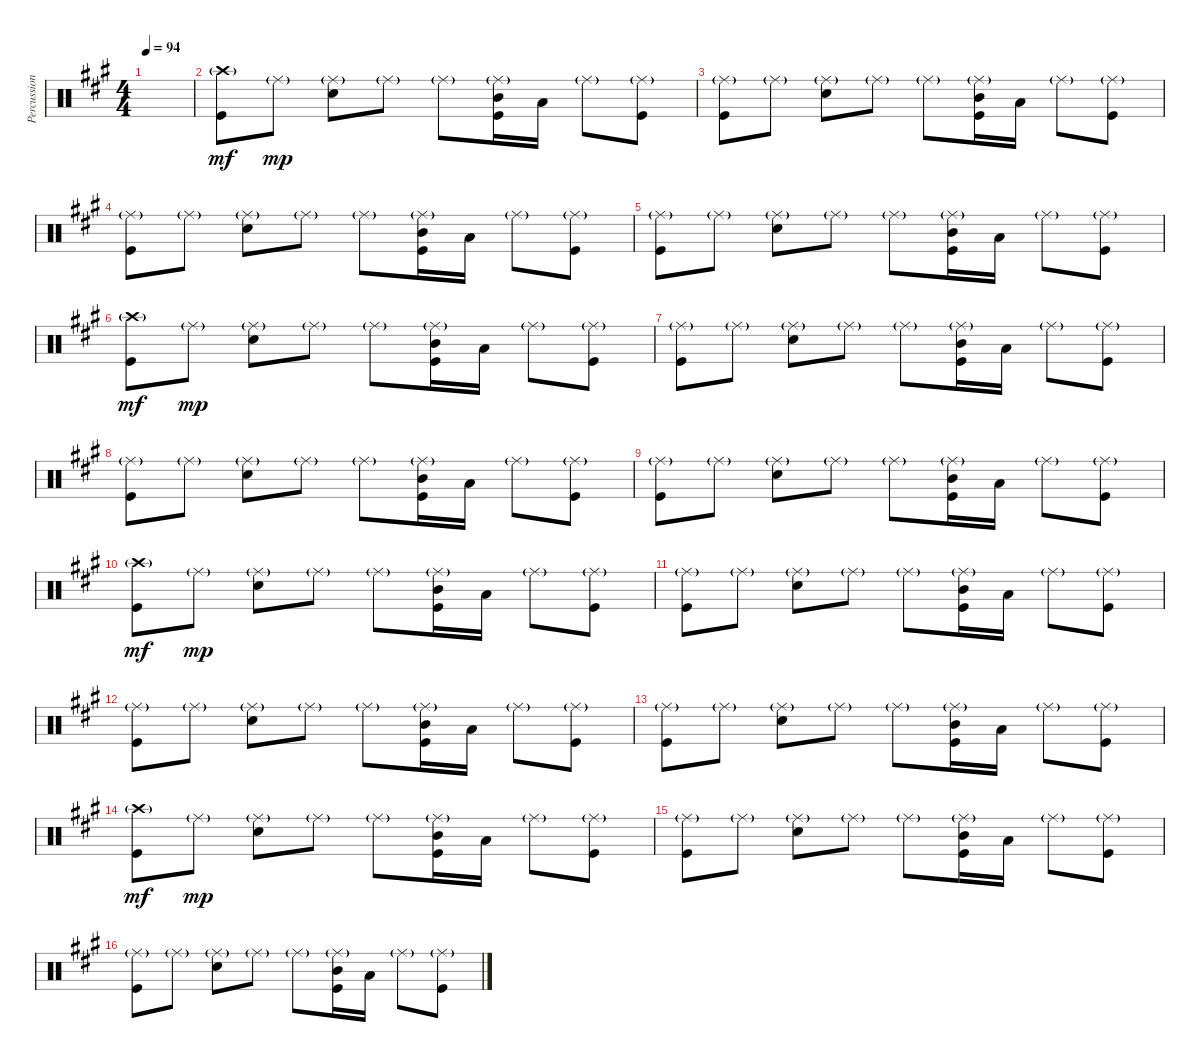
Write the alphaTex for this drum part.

\track ("Percussion" "Percussion") {instrument percussion}
\staff {score}
\articulation defaults
\ts (4 4)
\tempo 94
\clef neutral
\ks a
|
("Crash high (hit)"{g} "Kick (hit)").8{dy mf} "Ride (middle)"{g}.8{dy mp} ("Ride (middle)"{g} "Electric Snare (hit)").8 "Ride (middle)"{g}.8 "Ride (middle)"{g}.8 ("Ride (middle)"{g} "Mid Tom (hit)" "Kick (hit)").16 "Low Tom (hit)".16 "Ride (middle)"{g}.8 ("Ride (middle)"{g} "Kick (hit)").8 |
("Ride (middle)"{g} "Kick (hit)").8 "Ride (middle)"{g}.8 ("Ride (middle)"{g} "Electric Snare (hit)").8 "Ride (middle)"{g}.8 "Ride (middle)"{g}.8 ("Ride (middle)"{g} "Mid Tom (hit)" "Kick (hit)").16 "Low Tom (hit)".16 "Ride (middle)"{g}.8 ("Ride (middle)"{g} "Kick (hit)").8 |
("Ride (middle)"{g} "Kick (hit)").8 "Ride (middle)"{g}.8 ("Ride (middle)"{g} "Electric Snare (hit)").8 "Ride (middle)"{g}.8 "Ride (middle)"{g}.8 ("Ride (middle)"{g} "Mid Tom (hit)" "Kick (hit)").16 "Low Tom (hit)".16 "Ride (middle)"{g}.8 ("Ride (middle)"{g} "Kick (hit)").8 |
("Ride (middle)"{g} "Kick (hit)").8 "Ride (middle)"{g}.8 ("Ride (middle)"{g} "Electric Snare (hit)").8 "Ride (middle)"{g}.8 "Ride (middle)"{g}.8 ("Ride (middle)"{g} "Mid Tom (hit)" "Kick (hit)").16 "Low Tom (hit)".16 "Ride (middle)"{g}.8 ("Ride (middle)"{g} "Kick (hit)").8 |
("Crash high (hit)"{g} "Kick (hit)").8{dy mf} "Ride (middle)"{g}.8{dy mp} ("Ride (middle)"{g} "Electric Snare (hit)").8 "Ride (middle)"{g}.8 "Ride (middle)"{g}.8 ("Ride (middle)"{g} "Mid Tom (hit)" "Kick (hit)").16 "Low Tom (hit)".16 "Ride (middle)"{g}.8 ("Ride (middle)"{g} "Kick (hit)").8 |
("Ride (middle)"{g} "Kick (hit)").8 "Ride (middle)"{g}.8 ("Ride (middle)"{g} "Electric Snare (hit)").8 "Ride (middle)"{g}.8 "Ride (middle)"{g}.8 ("Ride (middle)"{g} "Mid Tom (hit)" "Kick (hit)").16 "Low Tom (hit)".16 "Ride (middle)"{g}.8 ("Ride (middle)"{g} "Kick (hit)").8 |
("Ride (middle)"{g} "Kick (hit)").8 "Ride (middle)"{g}.8 ("Ride (middle)"{g} "Electric Snare (hit)").8 "Ride (middle)"{g}.8 "Ride (middle)"{g}.8 ("Ride (middle)"{g} "Mid Tom (hit)" "Kick (hit)").16 "Low Tom (hit)".16 "Ride (middle)"{g}.8 ("Ride (middle)"{g} "Kick (hit)").8 |
("Ride (middle)"{g} "Kick (hit)").8 "Ride (middle)"{g}.8 ("Ride (middle)"{g} "Electric Snare (hit)").8 "Ride (middle)"{g}.8 "Ride (middle)"{g}.8 ("Ride (middle)"{g} "Mid Tom (hit)" "Kick (hit)").16 "Low Tom (hit)".16 "Ride (middle)"{g}.8 ("Ride (middle)"{g} "Kick (hit)").8 |
("Crash high (hit)"{g} "Kick (hit)").8{dy mf} "Ride (middle)"{g}.8{dy mp} ("Ride (middle)"{g} "Electric Snare (hit)").8 "Ride (middle)"{g}.8 "Ride (middle)"{g}.8 ("Ride (middle)"{g} "Mid Tom (hit)" "Kick (hit)").16 "Low Tom (hit)".16 "Ride (middle)"{g}.8 ("Ride (middle)"{g} "Kick (hit)").8 |
("Ride (middle)"{g} "Kick (hit)").8 "Ride (middle)"{g}.8 ("Ride (middle)"{g} "Electric Snare (hit)").8 "Ride (middle)"{g}.8 "Ride (middle)"{g}.8 ("Ride (middle)"{g} "Mid Tom (hit)" "Kick (hit)").16 "Low Tom (hit)".16 "Ride (middle)"{g}.8 ("Ride (middle)"{g} "Kick (hit)").8 |
("Ride (middle)"{g} "Kick (hit)").8 "Ride (middle)"{g}.8 ("Ride (middle)"{g} "Electric Snare (hit)").8 "Ride (middle)"{g}.8 "Ride (middle)"{g}.8 ("Ride (middle)"{g} "Mid Tom (hit)" "Kick (hit)").16 "Low Tom (hit)".16 "Ride (middle)"{g}.8 ("Ride (middle)"{g} "Kick (hit)").8 |
("Ride (middle)"{g} "Kick (hit)").8 "Ride (middle)"{g}.8 ("Ride (middle)"{g} "Electric Snare (hit)").8 "Ride (middle)"{g}.8 "Ride (middle)"{g}.8 ("Ride (middle)"{g} "Mid Tom (hit)" "Kick (hit)").16 "Low Tom (hit)".16 "Ride (middle)"{g}.8 ("Ride (middle)"{g} "Kick (hit)").8 |
("Crash high (hit)"{g} "Kick (hit)").8{dy mf} "Ride (middle)"{g}.8{dy mp} ("Ride (middle)"{g} "Electric Snare (hit)").8 "Ride (middle)"{g}.8 "Ride (middle)"{g}.8 ("Ride (middle)"{g} "Mid Tom (hit)" "Kick (hit)").16 "Low Tom (hit)".16 "Ride (middle)"{g}.8 ("Ride (middle)"{g} "Kick (hit)").8 |
("Ride (middle)"{g} "Kick (hit)").8 "Ride (middle)"{g}.8 ("Ride (middle)"{g} "Electric Snare (hit)").8 "Ride (middle)"{g}.8 "Ride (middle)"{g}.8 ("Ride (middle)"{g} "Mid Tom (hit)" "Kick (hit)").16 "Low Tom (hit)".16 "Ride (middle)"{g}.8 ("Ride (middle)"{g} "Kick (hit)").8 |
("Ride (middle)"{g} "Kick (hit)").8 "Ride (middle)"{g}.8 ("Ride (middle)"{g} "Electric Snare (hit)").8 "Ride (middle)"{g}.8 "Ride (middle)"{g}.8 ("Ride (middle)"{g} "Mid Tom (hit)" "Kick (hit)").16 "Low Tom (hit)".16 "Ride (middle)"{g}.8 ("Ride (middle)"{g} "Kick (hit)").8
